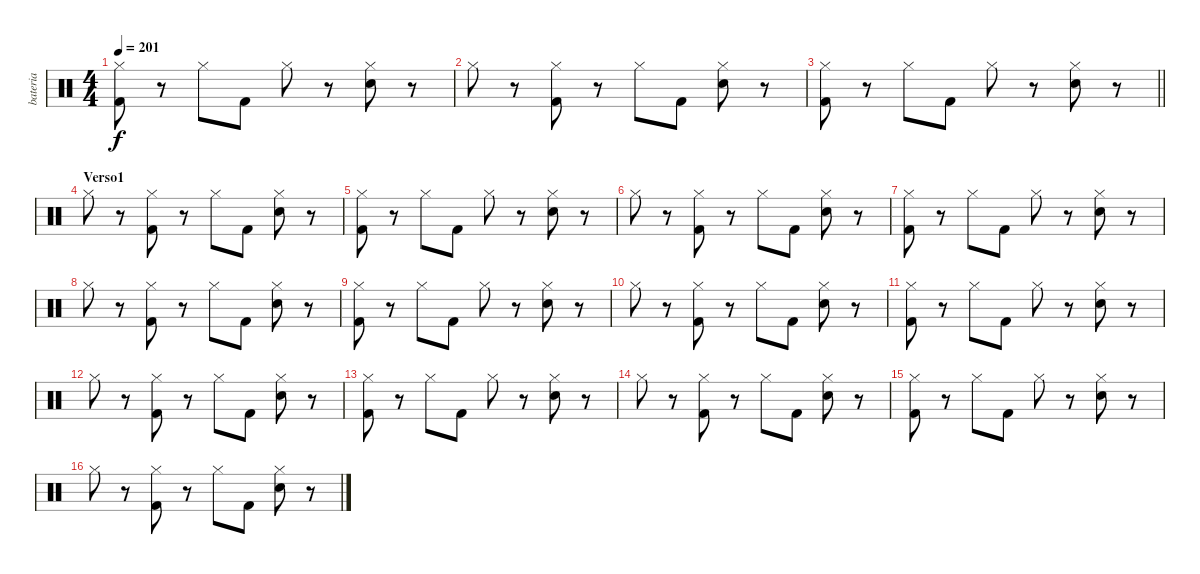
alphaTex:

\track ("bateria" "bateria") {solo instrument percussion}
\staff {score}
\articulation defaults
\ts (4 4)
\tempo 201
\clef neutral
\ks c
("Hi-Hat (closed)" "Kick (hit) 2").8{dy f} r.8 "Hi-Hat (closed)".8 "Kick (hit) 2".8 "Hi-Hat (closed)".8 r.8 ("Hi-Hat (closed)" "Electric Snare (hit)").8 r.8 |
"Hi-Hat (closed)".8 r.8 ("Hi-Hat (closed)" "Kick (hit) 2").8 r.8 "Hi-Hat (closed)".8 "Kick (hit) 2".8 ("Hi-Hat (closed)" "Electric Snare (hit)").8 r.8 |
\barLineRight lightlight
("Hi-Hat (closed)" "Kick (hit) 2").8 r.8 "Hi-Hat (closed)".8 "Kick (hit) 2".8 "Hi-Hat (closed)".8 r.8 ("Hi-Hat (closed)" "Electric Snare (hit)").8 r.8 |
\section ("" "Verso1")
"Hi-Hat (closed)".8 r.8 ("Hi-Hat (closed)" "Kick (hit) 2").8 r.8 "Hi-Hat (closed)".8 "Kick (hit) 2".8 ("Hi-Hat (closed)" "Electric Snare (hit)").8 r.8 |
("Hi-Hat (closed)" "Kick (hit) 2").8 r.8 "Hi-Hat (closed)".8 "Kick (hit) 2".8 "Hi-Hat (closed)".8 r.8 ("Hi-Hat (closed)" "Electric Snare (hit)").8 r.8 |
"Hi-Hat (closed)".8 r.8 ("Hi-Hat (closed)" "Kick (hit) 2").8 r.8 "Hi-Hat (closed)".8 "Kick (hit) 2".8 ("Hi-Hat (closed)" "Electric Snare (hit)").8 r.8 |
("Hi-Hat (closed)" "Kick (hit) 2").8 r.8 "Hi-Hat (closed)".8 "Kick (hit) 2".8 "Hi-Hat (closed)".8 r.8 ("Hi-Hat (closed)" "Electric Snare (hit)").8 r.8 |
"Hi-Hat (closed)".8 r.8 ("Hi-Hat (closed)" "Kick (hit) 2").8 r.8 "Hi-Hat (closed)".8 "Kick (hit) 2".8 ("Hi-Hat (closed)" "Electric Snare (hit)").8 r.8 |
("Hi-Hat (closed)" "Kick (hit) 2").8 r.8 "Hi-Hat (closed)".8 "Kick (hit) 2".8 "Hi-Hat (closed)".8 r.8 ("Hi-Hat (closed)" "Electric Snare (hit)").8 r.8 |
"Hi-Hat (closed)".8 r.8 ("Hi-Hat (closed)" "Kick (hit) 2").8 r.8 "Hi-Hat (closed)".8 "Kick (hit) 2".8 ("Hi-Hat (closed)" "Electric Snare (hit)").8 r.8 |
("Hi-Hat (closed)" "Kick (hit) 2").8 r.8 "Hi-Hat (closed)".8 "Kick (hit) 2".8 "Hi-Hat (closed)".8 r.8 ("Hi-Hat (closed)" "Electric Snare (hit)").8 r.8 |
"Hi-Hat (closed)".8 r.8 ("Hi-Hat (closed)" "Kick (hit) 2").8 r.8 "Hi-Hat (closed)".8 "Kick (hit) 2".8 ("Hi-Hat (closed)" "Electric Snare (hit)").8 r.8 |
("Hi-Hat (closed)" "Kick (hit) 2").8 r.8 "Hi-Hat (closed)".8 "Kick (hit) 2".8 "Hi-Hat (closed)".8 r.8 ("Hi-Hat (closed)" "Electric Snare (hit)").8 r.8 |
"Hi-Hat (closed)".8 r.8 ("Hi-Hat (closed)" "Kick (hit) 2").8 r.8 "Hi-Hat (closed)".8 "Kick (hit) 2".8 ("Hi-Hat (closed)" "Electric Snare (hit)").8 r.8 |
("Hi-Hat (closed)" "Kick (hit) 2").8 r.8 "Hi-Hat (closed)".8 "Kick (hit) 2".8 "Hi-Hat (closed)".8 r.8 ("Hi-Hat (closed)" "Electric Snare (hit)").8 r.8 |
"Hi-Hat (closed)".8 r.8 ("Hi-Hat (closed)" "Kick (hit) 2").8 r.8 "Hi-Hat (closed)".8 "Kick (hit) 2".8 ("Hi-Hat (closed)" "Electric Snare (hit)").8 r.8
